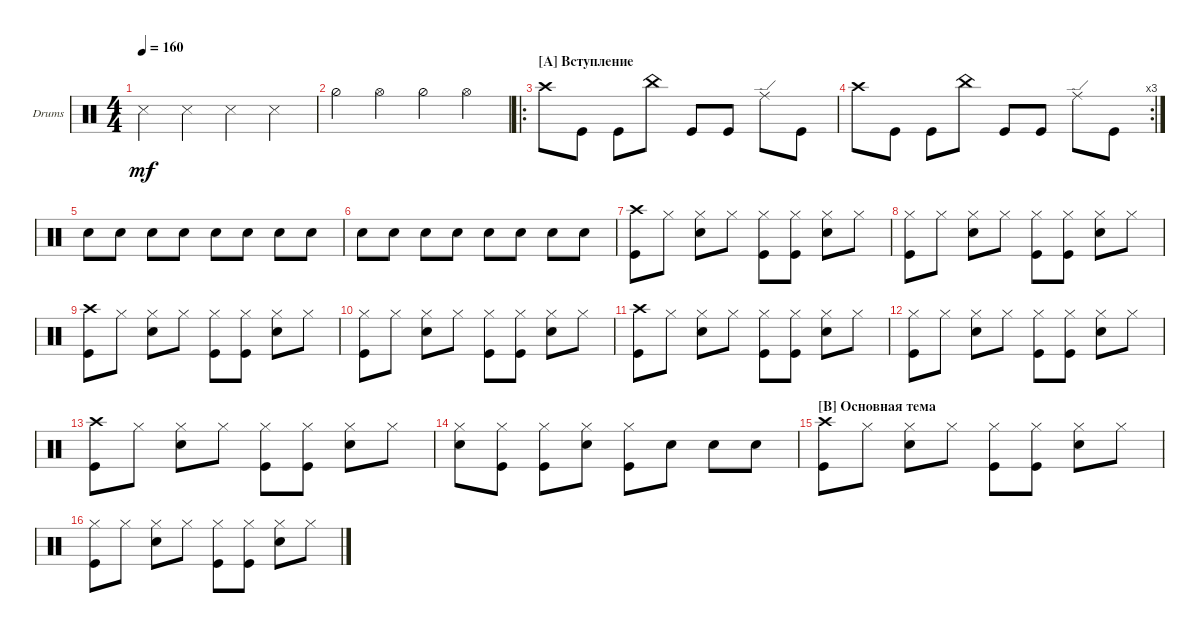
\bracketExtendMode groupsimilarinstruments
\firstSystemTrackNameOrientation horizontal
\otherSystemsTrackNameOrientation horizontal
\track ("Drumkit" "Drums") {instrument percussion}
\staff {score}
\articulation defaults
\ts (4 4)
\tempo 160
\clef neutral
\ks c "Snare (side stick) 3".4{dy mf} "Snare (side stick) 3".4 "Snare (side stick) 3".4 "Snare (side stick) 3".4
|
"Hi-Hat (half)".4 "Hi-Hat (open)".4 "Hi-Hat (half)".4 "Hi-Hat (open)".4 |
\ro
\section ("A" "Вступление")
"Crash high (hit)".8 "Kick (hit)".8 "Kick (hit)".8 "China (hit)".8 "Kick (hit)".8 "Kick (hit)".8 "Ride (edge)".8 "Kick (hit)".8 |
\rc 3 "Crash high (hit)".8 "Kick (hit)".8 "Kick (hit)".8 "China (hit)".8 "Kick (hit)".8 "Kick (hit)".8 "Ride (edge)".8 "Kick (hit)".8
|
"Snare (hit) 2".8 "Snare (hit) 2".8 "Snare (hit) 2".8 "Snare (hit) 2".8 "Snare (hit) 2".8 "Snare (hit) 2".8 "Snare (hit) 2".8 "Snare (hit) 2".8 |
"Snare (hit) 2".8 "Snare (hit) 2".8 "Snare (hit) 2".8 "Snare (hit) 2".8 "Snare (hit) 2".8 "Snare (hit) 2".8 "Snare (hit) 2".8 "Snare (hit) 2".8 |
("Kick (hit)" "Crash high (hit)").8 "Hi-Hat (closed)".8 ("Hi-Hat (closed)" "Snare (hit) 2").8 "Hi-Hat (closed)".8 ("Kick (hit)" "Hi-Hat (closed)").8 ("Hi-Hat (closed)" "Kick (hit)").8 ("Hi-Hat (closed)" "Snare (hit) 2").8 "Hi-Hat (closed)".8 |
("Kick (hit)" "Hi-Hat (closed)").8 "Hi-Hat (closed)".8 ("Hi-Hat (closed)" "Snare (hit) 2").8 "Hi-Hat (closed)".8 ("Kick (hit)" "Hi-Hat (closed)").8 ("Hi-Hat (closed)" "Kick (hit)").8 ("Hi-Hat (closed)" "Snare (hit) 2").8 "Hi-Hat (closed)".8 |
("Kick (hit)" "Crash high (hit)").8 "Hi-Hat (closed)".8 ("Hi-Hat (closed)" "Snare (hit) 2").8 "Hi-Hat (closed)".8 ("Kick (hit)" "Hi-Hat (closed)").8 ("Hi-Hat (closed)" "Kick (hit)").8 ("Hi-Hat (closed)" "Snare (hit) 2").8 "Hi-Hat (closed)".8 |
("Kick (hit)" "Hi-Hat (closed)").8 "Hi-Hat (closed)".8 ("Hi-Hat (closed)" "Snare (hit) 2").8 "Hi-Hat (closed)".8 ("Kick (hit)" "Hi-Hat (closed)").8 ("Hi-Hat (closed)" "Kick (hit)").8 ("Hi-Hat (closed)" "Snare (hit) 2").8 "Hi-Hat (closed)".8 |
("Kick (hit)" "Crash high (hit)").8 "Hi-Hat (closed)".8 ("Hi-Hat (closed)" "Snare (hit) 2").8 "Hi-Hat (closed)".8 ("Kick (hit)" "Hi-Hat (closed)").8 ("Hi-Hat (closed)" "Kick (hit)").8 ("Hi-Hat (closed)" "Snare (hit) 2").8 "Hi-Hat (closed)".8 |
("Kick (hit)" "Hi-Hat (closed)").8 "Hi-Hat (closed)".8 ("Hi-Hat (closed)" "Snare (hit) 2").8 "Hi-Hat (closed)".8 ("Kick (hit)" "Hi-Hat (closed)").8 ("Hi-Hat (closed)" "Kick (hit)").8 ("Hi-Hat (closed)" "Snare (hit) 2").8 "Hi-Hat (closed)".8 |
("Kick (hit)" "Crash high (hit)").8 "Hi-Hat (closed)".8 ("Hi-Hat (closed)" "Snare (hit) 2").8 "Hi-Hat (closed)".8 ("Kick (hit)" "Hi-Hat (closed)").8 ("Hi-Hat (closed)" "Kick (hit)").8 ("Hi-Hat (closed)" "Snare (hit) 2").8 "Hi-Hat (closed)".8 |
("Hi-Hat (closed)" "Snare (hit) 2").8 ("Hi-Hat (closed)" "Kick (hit)").8 ("Hi-Hat (closed)" "Kick (hit)").8 ("Hi-Hat (closed)" "Snare (hit) 2").8 ("Kick (hit)" "Hi-Hat (closed)").8 "Snare (hit) 2".8 "Snare (hit) 2".8 "Snare (hit) 2".8 |
\section ("B" "Основная тема")
("Kick (hit)" "Crash high (hit)").8 "Hi-Hat (closed)".8 ("Hi-Hat (closed)" "Snare (hit) 2").8 "Hi-Hat (closed)".8 ("Kick (hit)" "Hi-Hat (closed)").8 ("Hi-Hat (closed)" "Kick (hit)").8 ("Hi-Hat (closed)" "Snare (hit) 2").8 "Hi-Hat (closed)".8 |
("Kick (hit)" "Hi-Hat (closed)").8 "Hi-Hat (closed)".8 ("Hi-Hat (closed)" "Snare (hit) 2").8 "Hi-Hat (closed)".8 ("Kick (hit)" "Hi-Hat (closed)").8 ("Hi-Hat (closed)" "Kick (hit)").8 ("Hi-Hat (closed)" "Snare (hit) 2").8 "Hi-Hat (closed)".8
